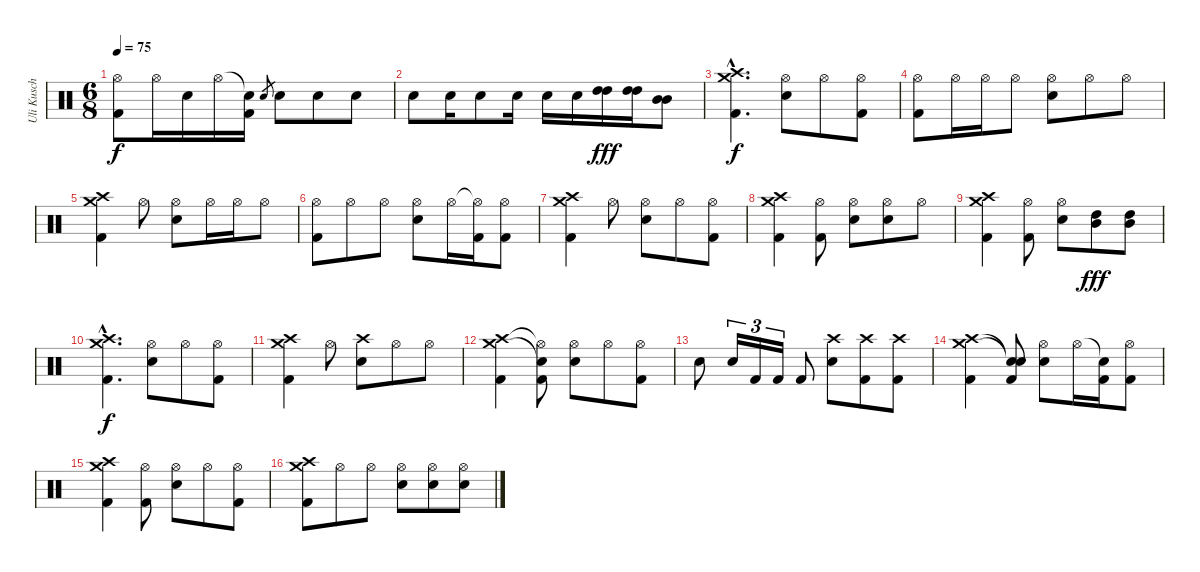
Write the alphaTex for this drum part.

\track ("Uli Kusch" "Uli Kusch") {instrument percussion}
\staff {score}
\articulation defaults
\ts (6 8)
\tempo 75
\clef neutral
\ks c
("Hi-Hat (open)" "Kick (hit) 2").8{dy f} "Hi-Hat (open)".16 "Electric Snare (hit)".16 "Hi-Hat (open)".16 ("Snare (hit)"{t} "Kick (hit) 2").16 "Electric Snare (hit)".8{gr} "Electric Snare (hit)".8 "Electric Snare (hit)".8 "Electric Snare (hit)".8 |
"Electric Snare (hit)".8 "Electric Snare (hit)".16 "Electric Snare (hit)".8 "Electric Snare (hit)".16 "Electric Snare (hit)".16 "Electric Snare (hit)".16 ("High Tom (hit)" "High Tom (hit)").16{dy fff} ("High Tom (hit)" "High Tom (hit)").16 ("Mid Tom (hit)" "Mid Tom (hit)").8 |
("Crash medium (hit)"{hac} "Crash high (hit)"{hac} "Kick (hit) 2"{hac}).4{d dy f} ("Hi-Hat (open)" "Electric Snare (hit)").8 "Hi-Hat (open)".8 ("Hi-Hat (open)" "Kick (hit) 2").8 |
("Hi-Hat (open)" "Kick (hit) 2").8 "Hi-Hat (open)".16 "Hi-Hat (open)".16 "Hi-Hat (open)".8 ("Hi-Hat (open)" "Electric Snare (hit)").8 "Hi-Hat (open)".8 "Hi-Hat (open)".8 |
("Crash high (hit)" "Crash medium (hit)" "Kick (hit) 2").4 "Hi-Hat (open)".8 ("Hi-Hat (open)" "Electric Snare (hit)").8 "Hi-Hat (open)".16 "Hi-Hat (open)".16 "Hi-Hat (open)".8 |
("Hi-Hat (open)" "Kick (hit) 2").8 "Hi-Hat (open)".8 "Hi-Hat (open)".8 ("Hi-Hat (open)" "Electric Snare (hit)").8 "Hi-Hat (open)".16 ("Hi-Hat (open)"{t} "Kick (hit) 2").16 ("Hi-Hat (open)" "Kick (hit) 2").8 |
("Crash high (hit)" "Crash medium (hit)" "Kick (hit) 2").4 "Hi-Hat (open)".8 ("Hi-Hat (open)" "Electric Snare (hit)").8 "Hi-Hat (open)".8 ("Hi-Hat (open)" "Kick (hit) 2").8 |
("Crash high (hit)" "Crash medium (hit)" "Kick (hit) 2").4 ("Hi-Hat (open)" "Kick (hit) 2").8 ("Hi-Hat (open)" "Electric Snare (hit)").8 ("Hi-Hat (open)" "Electric Snare (hit)").8 "Hi-Hat (open)".8 |
("Crash high (hit)" "Crash medium (hit)" "Kick (hit) 2").4 ("Hi-Hat (open)" "Kick (hit) 2").8 ("Hi-Hat (open)" "Electric Snare (hit)").8 ("Mid Tom (hit)" "High Tom (hit)").8{dy fff} ("Mid Tom (hit)" "High Tom (hit)").8 |
("Crash high (hit)"{hac} "Crash medium (hit)"{hac} "Kick (hit) 2"{hac}).4{d dy f} ("Hi-Hat (open)" "Electric Snare (hit)").8 "Hi-Hat (open)".8 ("Hi-Hat (open)" "Kick (hit) 2").8 |
("Crash medium (hit)" "Crash high (hit)" "Kick (hit) 2").4 "Hi-Hat (open)".8 ("Crash high (hit)" "Electric Snare (hit)").8 "Hi-Hat (open)".8 "Hi-Hat (open)".8 |
("Crash medium (hit)" "Crash high (hit)" "Kick (hit) 2").4 ("Snare (hit)"{t} "Hi-Hat (open)"{t} "Kick (hit) 2").8 ("Hi-Hat (open)" "Electric Snare (hit)").8 "Hi-Hat (open)".8 ("Hi-Hat (open)" "Kick (hit) 2").8 |
"Electric Snare (hit)".8 "Electric Snare (hit)".16{tu (3 2)} "Kick (hit) 2".16{tu (3 2)} "Kick (hit) 2".16{tu (3 2)} "Kick (hit) 2".8 ("Crash high (hit)" "Electric Snare (hit)").8 ("Crash high (hit)" "Kick (hit) 2").8 ("Crash high (hit)" "Kick (hit) 2").8 |
("Crash high (hit)" "Crash medium (hit)" "Kick (hit) 2").4 ("Snare (hit)"{t} "Snare (hit)"{t} "Kick (hit) 2").8 ("Hi-Hat (open)" "Electric Snare (hit)").8 "Hi-Hat (open)".16 ("Snare (hit)"{t} "Kick (hit) 2").16 ("Hi-Hat (open)" "Kick (hit) 2").8 |
("Crash medium (hit)" "Crash high (hit)" "Kick (hit) 2").4 ("Hi-Hat (open)" "Kick (hit) 2").8 ("Hi-Hat (open)" "Electric Snare (hit)").8 "Hi-Hat (open)".8 ("Hi-Hat (open)" "Kick (hit) 2").8 |
("Crash high (hit)" "Crash medium (hit)" "Kick (hit) 2").8 "Hi-Hat (open)".8 "Hi-Hat (open)".8 ("Hi-Hat (open)" "Electric Snare (hit)").8 ("Hi-Hat (open)" "Electric Snare (hit)").8 ("Hi-Hat (open)" "Electric Snare (hit)").8
